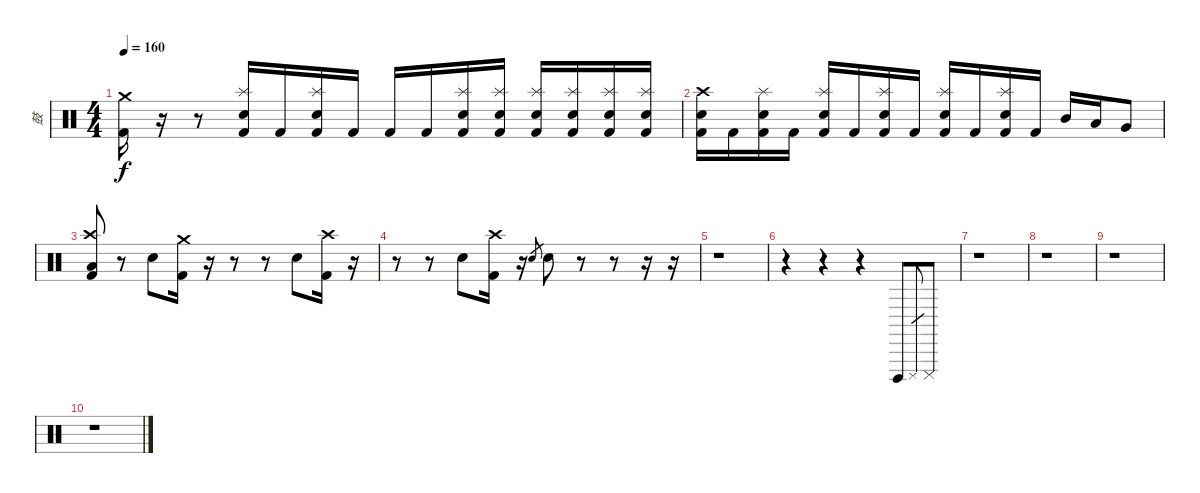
\track ("鼓" "鼓") {instrument percussion}
\staff {score}
\articulation defaults
\ts (4 4)
\tempo 160
\clef neutral
\ks c
("Crash medium (hit)" "Kick (hit) 2").16{dy f} r.16 r.8 ("Splash (hit)" "Electric Snare (hit)" "Kick (hit) 2").16 "Kick (hit) 2".16 ("Splash (hit)" "Electric Snare (hit)" "Kick (hit) 2").16 "Kick (hit) 2".16 "Kick (hit) 2".16 "Kick (hit) 2".16 ("Splash (hit)" "Electric Snare (hit)" "Kick (hit) 2").16 ("Splash (hit)" "Electric Snare (hit)" "Kick (hit) 2").16 ("Splash (hit)" "Electric Snare (hit)" "Kick (hit) 2").16 ("Splash (hit)" "Electric Snare (hit)" "Kick (hit) 2").16 ("Splash (hit)" "Electric Snare (hit)" "Kick (hit) 2").16 ("Splash (hit)" "Electric Snare (hit)" "Kick (hit) 2").16 |
("Crash high (hit)" "Electric Snare (hit)" "Kick (hit) 2").16 "Kick (hit) 2".16 ("Splash (hit)" "Electric Snare (hit)" "Kick (hit) 2").16 "Kick (hit) 2".16 ("Splash (hit)" "Electric Snare (hit)" "Kick (hit) 2").16 "Kick (hit) 2".16 ("Splash (hit)" "Electric Snare (hit)" "Kick (hit) 2").16 "Kick (hit) 2".16 ("Splash (hit)" "Electric Snare (hit)" "Kick (hit) 2").16 "Kick (hit) 2".16 ("Splash (hit)" "Electric Snare (hit)" "Kick (hit) 2").16 "Kick (hit) 2".16 "Mid Tom (hit)".16 "Low Tom (hit)".16 "Very Low Tom (hit)".8 |
("Crash high (hit)" "Kick (hit) 2" "Low Floor Tom (hit)").8 r.8 "Snare (hit) 2".8 ("Crash medium (hit)" "Kick (hit) 2").16 r.16 r.8 r.8 "Snare (hit) 2".8 ("Crash high (hit)" "Kick (hit) 2").16 r.16 |
r.8 r.8 "Snare (hit) 2".8 ("Crash high (hit)" "Kick (hit) 2").16 r.16 "Snare (hit) 2".8{gr} "Snare (hit) 2".8 r.8 r.8 r.16 r.16 |
r.1 |
r.4 r.4 r.4 "Cuica (open)".8 "Cuica (mute)".8{gr} "Cuica (mute)".8 |
r.1 |
r.1 |
r.1 |
r.1
